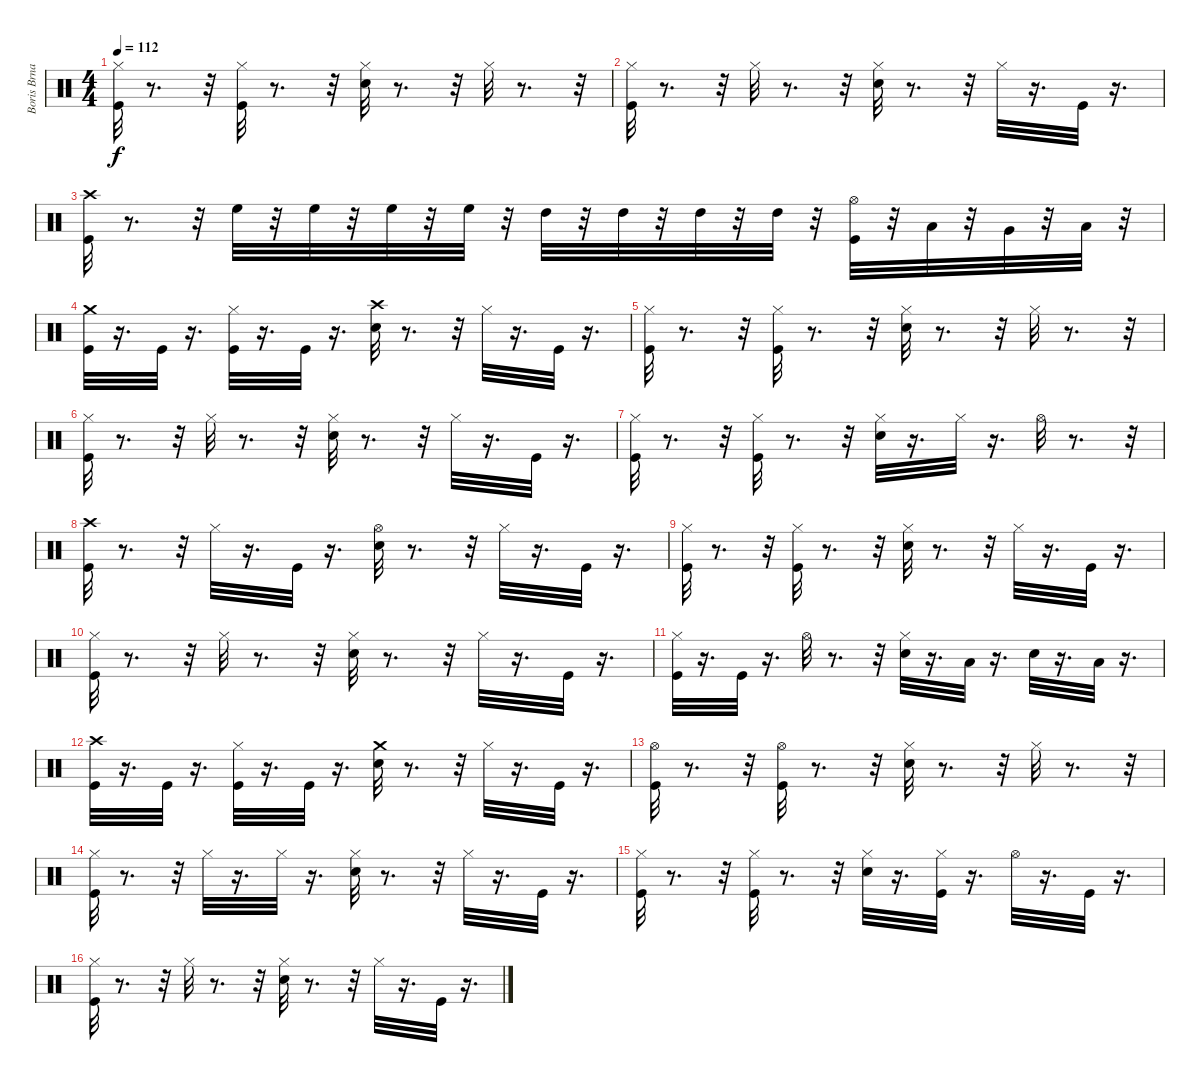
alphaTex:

\track ("Boris Brna (Drums)" "Boris Brna") {instrument percussion}
\staff {score}
\articulation defaults
\ts (4 4)
\tempo 112
\clef neutral
\ks c
("Kick (hit)" "Hi-Hat (closed)").32{dy f} r.8{d} r.32 ("Kick (hit)" "Hi-Hat (closed)").32 r.8{d} r.32 ("Snare (hit) 2" "Hi-Hat (closed)").32 r.8{d} r.32 "Hi-Hat (closed)".32 r.8{d} r.32 |
("Kick (hit)" "Hi-Hat (closed)").32 r.8{d} r.32 "Hi-Hat (closed)".32 r.8{d} r.32 ("Hi-Hat (closed)" "Snare (hit) 2").32 r.8{d} r.32 "Hi-Hat (closed)".32 r.16{d} "Kick (hit)".32 r.16{d} |
("Kick (hit)" "Crash high (hit)").32 r.8{d} r.32 "High Floor Tom (hit)".32 r.32 "High Floor Tom (hit)".32 r.32 "High Floor Tom (hit)".32 r.32 "High Floor Tom (hit)".32 r.32 "High Tom (hit)".32 r.32 "High Tom (hit)".32 r.32 "High Tom (hit)".32 r.32 "High Tom (hit)".32 r.32 ("Kick (hit)" "Hi-Hat (open)").32 r.32 "Low Tom (hit)".32 r.32 "Very Low Tom (hit)".32 r.32 "Low Floor Tom (hit)".32 r.32 |
("Kick (hit)" "Crash medium (hit)").32 r.16{d} "Kick (hit)".32 r.16{d} ("Hi-Hat (closed)" "Kick (hit)").32 r.16{d} "Kick (hit)".32 r.16{d} ("Crash high (hit)" "Snare (hit) 2").32 r.8{d} r.32 "Hi-Hat (closed)".32 r.16{d} "Kick (hit)".32 r.16{d} |
("Kick (hit)" "Hi-Hat (closed)").32 r.8{d} r.32 ("Kick (hit)" "Hi-Hat (closed)").32 r.8{d} r.32 ("Snare (hit) 2" "Hi-Hat (closed)").32 r.8{d} r.32 "Hi-Hat (closed)".32 r.8{d} r.32 |
("Kick (hit)" "Hi-Hat (closed)").32 r.8{d} r.32 "Hi-Hat (closed)".32 r.8{d} r.32 ("Hi-Hat (closed)" "Snare (hit) 2").32 r.8{d} r.32 "Hi-Hat (closed)".32 r.16{d} "Kick (hit)".32 r.16{d} |
("Kick (hit)" "Hi-Hat (closed)").32 r.8{d} r.32 ("Kick (hit)" "Hi-Hat (closed)").32 r.8{d} r.32 ("Snare (hit) 2" "Hi-Hat (closed)").32 r.16{d} "Hi-Hat (closed)".32 r.16{d} "Hi-Hat (open)".32 r.8{d} r.32 |
("Kick (hit)" "Crash high (hit)").32 r.8{d} r.32 "Hi-Hat (closed)".32 r.16{d} "Kick (hit)".32 r.16{d} ("Hi-Hat (open)" "Snare (hit) 2").32 r.8{d} r.32 "Hi-Hat (closed)".32 r.16{d} "Kick (hit)".32 r.16{d} |
("Kick (hit)" "Hi-Hat (closed)").32 r.8{d} r.32 ("Kick (hit)" "Hi-Hat (closed)").32 r.8{d} r.32 ("Snare (hit) 2" "Hi-Hat (closed)").32 r.8{d} r.32 "Hi-Hat (closed)".32 r.16{d} "Kick (hit)".32 r.16{d} |
("Kick (hit)" "Hi-Hat (closed)").32 r.8{d} r.32 "Hi-Hat (closed)".32 r.8{d} r.32 ("Hi-Hat (closed)" "Snare (hit) 2").32 r.8{d} r.32 "Hi-Hat (closed)".32 r.16{d} "Kick (hit)".32 r.16{d} |
("Kick (hit)" "Hi-Hat (closed)").32 r.16{d} "Kick (hit)".32 r.16{d} "Hi-Hat (open)".32 r.8{d} r.32 ("Snare (hit) 2" "Hi-Hat (closed)").32 r.16{d} "Low Tom (hit)".32 r.16{d} "Snare (hit) 2".32 r.16{d} "Low Floor Tom (hit)".32 r.16{d} |
("Kick (hit)" "Crash high (hit)").32 r.16{d} "Kick (hit)".32 r.16{d} ("Hi-Hat (closed)" "Kick (hit)").32 r.16{d} "Kick (hit)".32 r.16{d} ("Crash medium (hit)" "Snare (hit) 2").32 r.8{d} r.32 "Hi-Hat (closed)".32 r.16{d} "Kick (hit)".32 r.16{d} |
("Kick (hit)" "Hi-Hat (open)").32 r.8{d} r.32 ("Kick (hit)" "Hi-Hat (open)").32 r.8{d} r.32 ("Snare (hit) 2" "Hi-Hat (closed)").32 r.8{d} r.32 "Hi-Hat (closed)".32 r.8{d} r.32 |
("Kick (hit)" "Hi-Hat (closed)").32 r.8{d} r.32 "Hi-Hat (closed)".32 r.16{d} "Hi-Hat (closed)".32 r.16{d} ("Hi-Hat (closed)" "Snare (hit) 2").32 r.8{d} r.32 "Hi-Hat (closed)".32 r.16{d} "Kick (hit)".32 r.16{d} |
("Kick (hit)" "Hi-Hat (closed)").32 r.8{d} r.32 ("Kick (hit)" "Hi-Hat (closed)").32 r.8{d} r.32 ("Snare (hit) 2" "Hi-Hat (closed)").32 r.16{d} ("Hi-Hat (closed)" "Kick (hit)").32 r.16{d} "Hi-Hat (open)".32 r.16{d} "Kick (hit)".32 r.16{d} |
("Kick (hit)" "Hi-Hat (closed)").32{volume 0} r.8{d} r.32 "Hi-Hat (closed)".32 r.8{d} r.32 ("Hi-Hat (closed)" "Snare (hit) 2").32 r.8{d} r.32 "Hi-Hat (closed)".32 r.16{d} "Kick (hit)".32 r.16{d}
